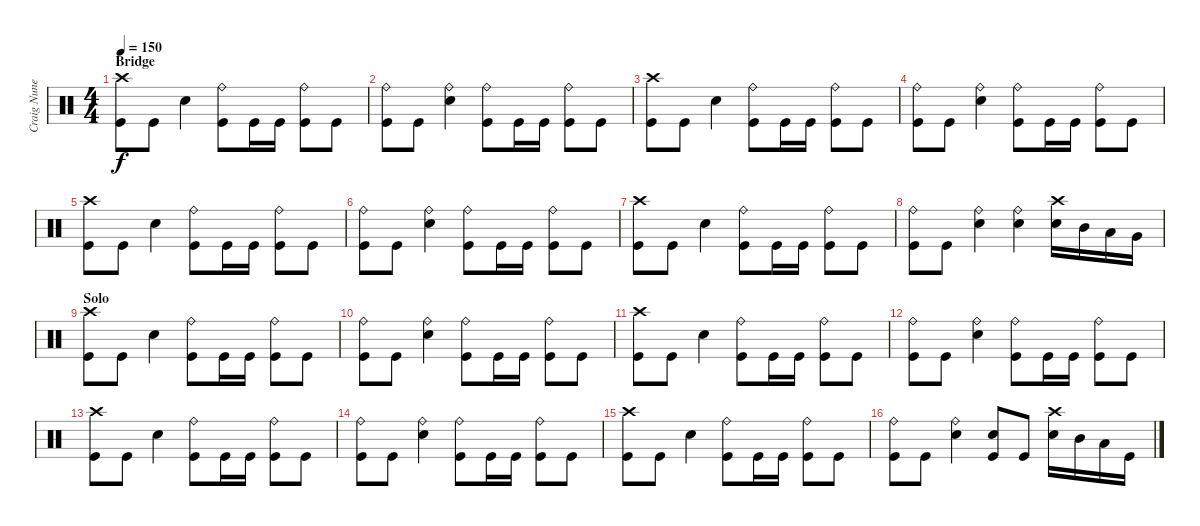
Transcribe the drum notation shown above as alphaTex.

\track ("Craig Nunenmacher" "Craig Nune") {instrument percussion}
\staff {score}
\articulation defaults
\ts (4 4)
\section ("" "Bridge")
\tempo 150
\clef neutral
\ks c
("Crash high (hit)" "Kick (hit)").8{dy f} "Kick (hit)".8 "Snare (hit) 2".4 ("Ride (bell)" "Kick (hit)").8 "Kick (hit)".16 "Kick (hit)".16 ("Ride (bell)" "Kick (hit)").8 "Kick (hit)".8 |
("Ride (bell)" "Kick (hit)").8 "Kick (hit)".8 ("Ride (bell)" "Snare (hit) 2").4 ("Ride (bell)" "Kick (hit)").8 "Kick (hit)".16 "Kick (hit)".16 ("Ride (bell)" "Kick (hit)").8 "Kick (hit)".8 |
("Crash high (hit)" "Kick (hit)").8 "Kick (hit)".8 "Snare (hit) 2".4 ("Ride (bell)" "Kick (hit)").8 "Kick (hit)".16 "Kick (hit)".16 ("Ride (bell)" "Kick (hit)").8 "Kick (hit)".8 |
("Ride (bell)" "Kick (hit)").8 "Kick (hit)".8 ("Ride (bell)" "Snare (hit) 2").4 ("Ride (bell)" "Kick (hit)").8 "Kick (hit)".16 "Kick (hit)".16 ("Ride (bell)" "Kick (hit)").8 "Kick (hit)".8 |
("Crash high (hit)" "Kick (hit)").8 "Kick (hit)".8 "Snare (hit) 2".4 ("Ride (bell)" "Kick (hit)").8 "Kick (hit)".16 "Kick (hit)".16 ("Ride (bell)" "Kick (hit)").8 "Kick (hit)".8 |
("Ride (bell)" "Kick (hit)").8 "Kick (hit)".8 ("Ride (bell)" "Snare (hit) 2").4 ("Ride (bell)" "Kick (hit)").8 "Kick (hit)".16 "Kick (hit)".16 ("Ride (bell)" "Kick (hit)").8 "Kick (hit)".8 |
("Crash high (hit)" "Kick (hit)").8 "Kick (hit)".8 "Snare (hit) 2".4 ("Ride (bell)" "Kick (hit)").8 "Kick (hit)".16 "Kick (hit)".16 ("Ride (bell)" "Kick (hit)").8 "Kick (hit)".8 |
("Ride (bell)" "Kick (hit)").8 "Kick (hit)".8 ("Ride (bell)" "Snare (hit) 2").4 ("Ride (bell)" "Snare (hit) 2").4 ("Crash high (hit)" "Snare (hit) 2").16 "Mid Tom (hit)".16 "Low Tom (hit)".16 "Very Low Tom (hit)".16 |
\section ("" "Solo")
("Crash high (hit)" "Kick (hit)").8 "Kick (hit)".8 "Snare (hit) 2".4 ("Ride (bell)" "Kick (hit)").8 "Kick (hit)".16 "Kick (hit)".16 ("Ride (bell)" "Kick (hit)").8 "Kick (hit)".8 |
("Ride (bell)" "Kick (hit)").8 "Kick (hit)".8 ("Ride (bell)" "Snare (hit) 2").4 ("Ride (bell)" "Kick (hit)").8 "Kick (hit)".16 "Kick (hit)".16 ("Ride (bell)" "Kick (hit)").8 "Kick (hit)".8 |
("Crash high (hit)" "Kick (hit)").8 "Kick (hit)".8 "Snare (hit) 2".4 ("Ride (bell)" "Kick (hit)").8 "Kick (hit)".16 "Kick (hit)".16 ("Ride (bell)" "Kick (hit)").8 "Kick (hit)".8 |
("Ride (bell)" "Kick (hit)").8 "Kick (hit)".8 ("Ride (bell)" "Snare (hit) 2").4 ("Ride (bell)" "Kick (hit)").8 "Kick (hit)".16 "Kick (hit)".16 ("Ride (bell)" "Kick (hit)").8 "Kick (hit)".8 |
("Crash high (hit)" "Kick (hit)").8 "Kick (hit)".8 "Snare (hit) 2".4 ("Ride (bell)" "Kick (hit)").8 "Kick (hit)".16 "Kick (hit)".16 ("Ride (bell)" "Kick (hit)").8 "Kick (hit)".8 |
("Ride (bell)" "Kick (hit)").8 "Kick (hit)".8 ("Ride (bell)" "Snare (hit) 2").4 ("Ride (bell)" "Kick (hit)").8 "Kick (hit)".16 "Kick (hit)".16 ("Ride (bell)" "Kick (hit)").8 "Kick (hit)".8 |
("Crash high (hit)" "Kick (hit)").8 "Kick (hit)".8 "Snare (hit) 2".4 ("Ride (bell)" "Kick (hit)").8 "Kick (hit)".16 "Kick (hit)".16 ("Ride (bell)" "Kick (hit)").8 "Kick (hit)".8 |
("Ride (bell)" "Kick (hit)").8 "Kick (hit)".8 ("Ride (bell)" "Snare (hit) 2").4 ("Snare (hit) 2" "Kick (hit)").8 "Kick (hit)".8 ("Crash high (hit)" "Snare (hit) 2").16 "Mid Tom (hit)".16 "Low Tom (hit)".16 "Kick (hit)".16
